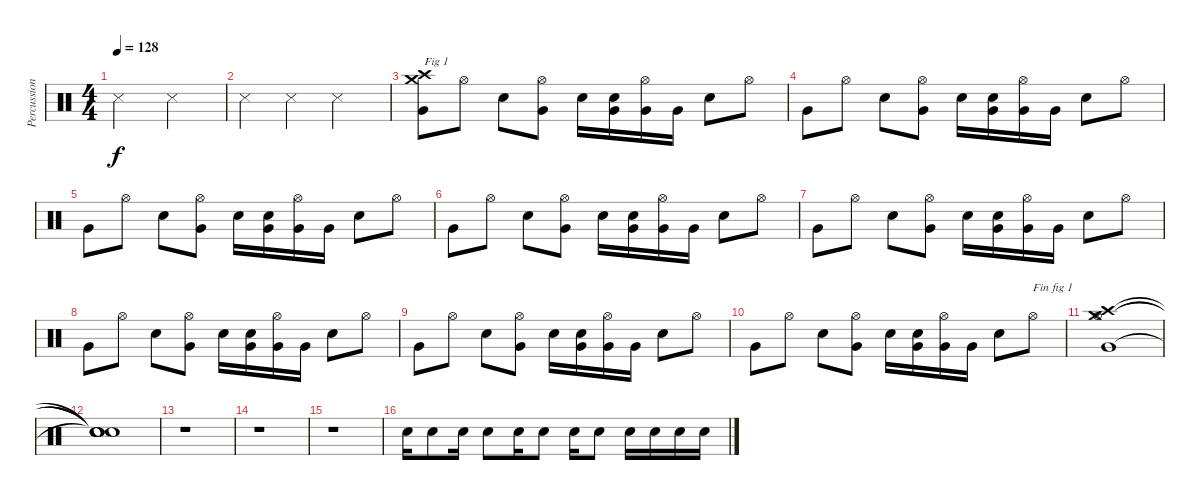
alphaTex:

\track ("Percussions" "Percussion") {instrument percussion}
\staff {score}
\articulation defaults
\ts (4 4)
\tempo 128
\clef neutral
\ks c "Metronome (hit)".2{dy f} "Metronome (hit)".2
|
"Metronome (hit)".4 "Metronome (hit)".4 "Metronome (hit)".2 |
("Very Low Tom (hit)" "Crash medium (hit)" "Crash high (hit)").8{txt "Fig 1"} "Hi-Hat (open)".8 "Snare (hit) 2".8 ("Very Low Tom (hit)" "Hi-Hat (open)").8 "Snare (hit) 2".16 ("Very Low Tom (hit)" "Snare (hit) 2").16 ("Very Low Tom (hit)" "Hi-Hat (open)").16 "Very Low Tom (hit)".16 "Snare (hit) 2".8 "Hi-Hat (open)".8 |
"Very Low Tom (hit)".8 "Hi-Hat (open)".8 "Snare (hit) 2".8 ("Very Low Tom (hit)" "Hi-Hat (open)").8 "Snare (hit) 2".16 ("Very Low Tom (hit)" "Snare (hit) 2").16 ("Very Low Tom (hit)" "Hi-Hat (open)").16 "Very Low Tom (hit)".16 "Snare (hit) 2".8 "Hi-Hat (open)".8 |
"Very Low Tom (hit)".8 "Hi-Hat (open)".8 "Snare (hit) 2".8 ("Very Low Tom (hit)" "Hi-Hat (open)").8 "Snare (hit) 2".16 ("Very Low Tom (hit)" "Snare (hit) 2").16 ("Very Low Tom (hit)" "Hi-Hat (open)").16 "Very Low Tom (hit)".16 "Snare (hit) 2".8 "Hi-Hat (open)".8 |
"Very Low Tom (hit)".8 "Hi-Hat (open)".8 "Snare (hit) 2".8 ("Very Low Tom (hit)" "Hi-Hat (open)").8 "Snare (hit) 2".16 ("Very Low Tom (hit)" "Snare (hit) 2").16 ("Very Low Tom (hit)" "Hi-Hat (open)").16 "Very Low Tom (hit)".16 "Snare (hit) 2".8 "Hi-Hat (open)".8 |
"Very Low Tom (hit)".8 "Hi-Hat (open)".8 "Snare (hit) 2".8 ("Very Low Tom (hit)" "Hi-Hat (open)").8 "Snare (hit) 2".16 ("Very Low Tom (hit)" "Snare (hit) 2").16 ("Very Low Tom (hit)" "Hi-Hat (open)").16 "Very Low Tom (hit)".16 "Snare (hit) 2".8 "Hi-Hat (open)".8 |
"Very Low Tom (hit)".8 "Hi-Hat (open)".8 "Snare (hit) 2".8 ("Very Low Tom (hit)" "Hi-Hat (open)").8 "Snare (hit) 2".16 ("Very Low Tom (hit)" "Snare (hit) 2").16 ("Very Low Tom (hit)" "Hi-Hat (open)").16 "Very Low Tom (hit)".16 "Snare (hit) 2".8 "Hi-Hat (open)".8 |
"Very Low Tom (hit)".8 "Hi-Hat (open)".8 "Snare (hit) 2".8 ("Very Low Tom (hit)" "Hi-Hat (open)").8 "Snare (hit) 2".16 ("Very Low Tom (hit)" "Snare (hit) 2").16 ("Very Low Tom (hit)" "Hi-Hat (open)").16 "Very Low Tom (hit)".16 "Snare (hit) 2".8 "Hi-Hat (open)".8 |
"Very Low Tom (hit)".8 "Hi-Hat (open)".8 "Snare (hit) 2".8 ("Very Low Tom (hit)" "Hi-Hat (open)").8 "Snare (hit) 2".16 ("Very Low Tom (hit)" "Snare (hit) 2").16 ("Very Low Tom (hit)" "Hi-Hat (open)").16 "Very Low Tom (hit)".16 "Snare (hit) 2".8 "Hi-Hat (open)".8{txt "Fin fig 1"} |
("Very Low Tom (hit)" "Crash high (hit)" "Crash medium (hit)" "Hi-Hat (open)").1 |
("Snare (hit)"{t} "Snare (hit)"{t} "Snare (hit)"{t} "Snare (hit)"{t}).1 |
r.1 |
r.1 |
r.1 |
"Snare (hit) 2".16 "Snare (hit) 2".8 "Snare (hit) 2".16 "Snare (hit) 2".8 "Snare (hit) 2".16 "Snare (hit) 2".8 "Snare (hit) 2".16 "Snare (hit) 2".8 "Snare (hit) 2".16 "Snare (hit) 2".16 "Snare (hit) 2".16 "Snare (hit) 2".16
